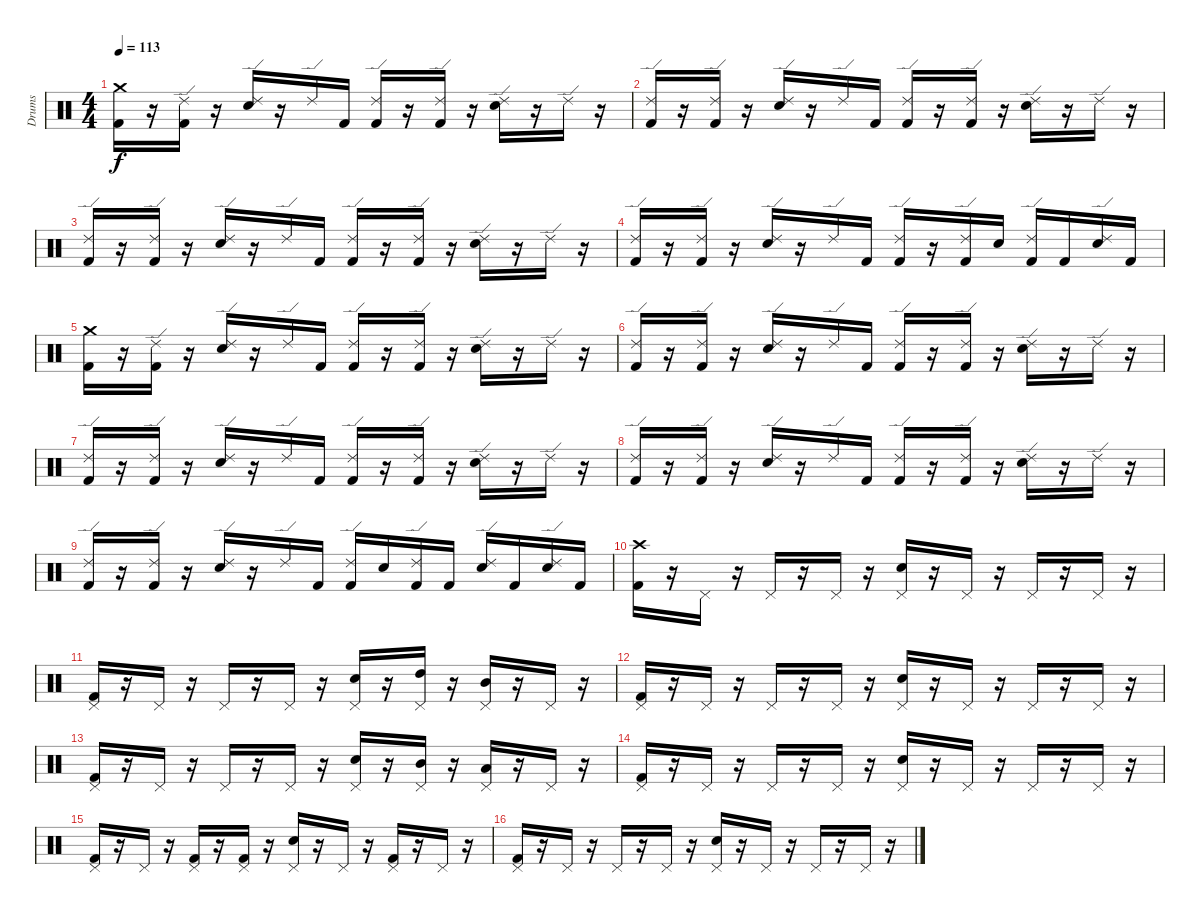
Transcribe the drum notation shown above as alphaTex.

\track ("Drums" "Drums") {instrument percussion}
\staff {score}
\articulation defaults
\ts (4 4)
\tempo 113
\clef neutral
\ks c
("Crash medium (hit)" "Kick (hit) 2").16{dy f} r.16 ("Ride (edge) 2" "Kick (hit) 2").16 r.16 ("Ride (edge) 2" "Snare (hit) 2").16 r.16 "Ride (edge) 2".16 "Kick (hit) 2".16 ("Ride (edge) 2" "Kick (hit) 2").16 r.16 ("Ride (edge) 2" "Kick (hit) 2").16 r.16 ("Ride (edge) 2" "Snare (hit) 2").16 r.16 "Ride (edge) 2".16 r.16 |
("Ride (edge) 2" "Kick (hit) 2").16 r.16 ("Ride (edge) 2" "Kick (hit) 2").16 r.16 ("Ride (edge) 2" "Snare (hit) 2").16 r.16 "Ride (edge) 2".16 "Kick (hit) 2".16 ("Ride (edge) 2" "Kick (hit) 2").16 r.16 ("Ride (edge) 2" "Kick (hit) 2").16 r.16 ("Ride (edge) 2" "Snare (hit) 2").16 r.16 "Ride (edge) 2".16 r.16 |
("Ride (edge) 2" "Kick (hit) 2").16 r.16 ("Ride (edge) 2" "Kick (hit) 2").16 r.16 ("Ride (edge) 2" "Snare (hit) 2").16 r.16 "Ride (edge) 2".16 "Kick (hit) 2".16 ("Ride (edge) 2" "Kick (hit) 2").16 r.16 ("Ride (edge) 2" "Kick (hit) 2").16 r.16 ("Ride (edge) 2" "Snare (hit) 2").16 r.16 "Ride (edge) 2".16 r.16 |
("Ride (edge) 2" "Kick (hit) 2").16 r.16 ("Ride (edge) 2" "Kick (hit) 2").16 r.16 ("Ride (edge) 2" "Snare (hit) 2").16 r.16 "Ride (edge) 2".16 "Kick (hit) 2".16 ("Ride (edge) 2" "Kick (hit) 2").16 r.16 ("Ride (edge) 2" "Kick (hit) 2").16 "Snare (hit) 2".16 ("Ride (edge) 2" "Kick (hit) 2").16 "Kick (hit) 2".16 ("Ride (edge) 2" "Snare (hit) 2").16 "Kick (hit) 2".16 |
("Crash medium (hit)" "Kick (hit) 2").16 r.16 ("Ride (edge) 2" "Kick (hit) 2").16 r.16 ("Ride (edge) 2" "Snare (hit) 2").16 r.16 "Ride (edge) 2".16 "Kick (hit) 2".16 ("Ride (edge) 2" "Kick (hit) 2").16 r.16 ("Ride (edge) 2" "Kick (hit) 2").16 r.16 ("Ride (edge) 2" "Snare (hit) 2").16 r.16 "Ride (edge) 2".16 r.16 |
("Ride (edge) 2" "Kick (hit) 2").16 r.16 ("Ride (edge) 2" "Kick (hit) 2").16 r.16 ("Ride (edge) 2" "Snare (hit) 2").16 r.16 "Ride (edge) 2".16 "Kick (hit) 2".16 ("Ride (edge) 2" "Kick (hit) 2").16 r.16 ("Ride (edge) 2" "Kick (hit) 2").16 r.16 ("Ride (edge) 2" "Snare (hit) 2").16 r.16 "Ride (edge) 2".16 r.16 |
("Ride (edge) 2" "Kick (hit) 2").16 r.16 ("Ride (edge) 2" "Kick (hit) 2").16 r.16 ("Ride (edge) 2" "Snare (hit) 2").16 r.16 "Ride (edge) 2".16 "Kick (hit) 2".16 ("Ride (edge) 2" "Kick (hit) 2").16 r.16 ("Ride (edge) 2" "Kick (hit) 2").16 r.16 ("Ride (edge) 2" "Snare (hit) 2").16 r.16 "Ride (edge) 2".16 r.16 |
("Ride (edge) 2" "Kick (hit) 2").16 r.16 ("Ride (edge) 2" "Kick (hit) 2").16 r.16 ("Ride (edge) 2" "Snare (hit) 2").16 r.16 "Ride (edge) 2".16 "Kick (hit) 2".16 ("Ride (edge) 2" "Kick (hit) 2").16 r.16 ("Ride (edge) 2" "Kick (hit) 2").16 r.16 ("Ride (edge) 2" "Snare (hit) 2").16 r.16 "Ride (edge) 2".16 r.16 |
("Ride (edge) 2" "Kick (hit) 2").16 r.16 ("Ride (edge) 2" "Kick (hit) 2").16 r.16 ("Ride (edge) 2" "Snare (hit) 2").16 r.16 "Ride (edge) 2".16 "Kick (hit) 2".16 ("Ride (edge) 2" "Kick (hit) 2").16 "Snare (hit) 2".16 ("Ride (edge) 2" "Kick (hit) 2").16 "Kick (hit) 2".16 ("Ride (edge) 2" "Snare (hit) 2").16 "Kick (hit) 2".16 ("Ride (edge) 2" "Snare (hit) 2").16 "Kick (hit) 2".16 |
("Crash high (hit)" "Kick (hit) 2").16 r.16 "Pedal Hi-Hat (hit)".16 r.16 "Pedal Hi-Hat (hit)".16 r.16 "Pedal Hi-Hat (hit)".16 r.16 ("Pedal Hi-Hat (hit)" "Snare (hit) 2").16 r.16 "Pedal Hi-Hat (hit)".16 r.16 "Pedal Hi-Hat (hit)".16 r.16 "Pedal Hi-Hat (hit)".16 r.16 |
("Pedal Hi-Hat (hit)" "Kick (hit) 2").16 r.16 "Pedal Hi-Hat (hit)".16 r.16 "Pedal Hi-Hat (hit)".16 r.16 "Pedal Hi-Hat (hit)".16 r.16 ("Pedal Hi-Hat (hit)" "Snare (hit) 2").16 r.16 ("Pedal Hi-Hat (hit)" "High Tom (hit)").16 r.16 ("Pedal Hi-Hat (hit)" "Mid Tom (hit)").16 r.16 "Pedal Hi-Hat (hit)".16 r.16 |
("Pedal Hi-Hat (hit)" "Kick (hit) 2").16 r.16 "Pedal Hi-Hat (hit)".16 r.16 "Pedal Hi-Hat (hit)".16 r.16 "Pedal Hi-Hat (hit)".16 r.16 ("Pedal Hi-Hat (hit)" "Snare (hit) 2").16 r.16 "Pedal Hi-Hat (hit)".16 r.16 "Pedal Hi-Hat (hit)".16 r.16 "Pedal Hi-Hat (hit)".16 r.16 |
("Pedal Hi-Hat (hit)" "Kick (hit) 2").16 r.16 "Pedal Hi-Hat (hit)".16 r.16 "Pedal Hi-Hat (hit)".16 r.16 "Pedal Hi-Hat (hit)".16 r.16 ("Pedal Hi-Hat (hit)" "Snare (hit) 2").16 r.16 ("Pedal Hi-Hat (hit)" "Mid Tom (hit)").16 r.16 ("Pedal Hi-Hat (hit)" "Low Tom (hit)").16 r.16 "Pedal Hi-Hat (hit)".16 r.16 |
("Pedal Hi-Hat (hit)" "Kick (hit) 2").16 r.16 "Pedal Hi-Hat (hit)".16 r.16 "Pedal Hi-Hat (hit)".16 r.16 "Pedal Hi-Hat (hit)".16 r.16 ("Pedal Hi-Hat (hit)" "Snare (hit) 2").16 r.16 "Pedal Hi-Hat (hit)".16 r.16 "Pedal Hi-Hat (hit)".16 r.16 "Pedal Hi-Hat (hit)".16 r.16 |
("Pedal Hi-Hat (hit)" "Kick (hit) 2").16 r.16 "Pedal Hi-Hat (hit)".16 r.16 ("Pedal Hi-Hat (hit)" "Kick (hit) 2").16 r.16 ("Pedal Hi-Hat (hit)" "Kick (hit) 2").16 r.16 ("Pedal Hi-Hat (hit)" "Snare (hit) 2").16 r.16 "Pedal Hi-Hat (hit)".16 r.16 ("Pedal Hi-Hat (hit)" "Kick (hit) 2").16 r.16 "Pedal Hi-Hat (hit)".16 r.16 |
("Pedal Hi-Hat (hit)" "Kick (hit) 2").16 r.16 "Pedal Hi-Hat (hit)".16 r.16 "Pedal Hi-Hat (hit)".16 r.16 "Pedal Hi-Hat (hit)".16 r.16 ("Pedal Hi-Hat (hit)" "Snare (hit) 2").16 r.16 "Pedal Hi-Hat (hit)".16 r.16 "Pedal Hi-Hat (hit)".16 r.16 "Pedal Hi-Hat (hit)".16 r.16
